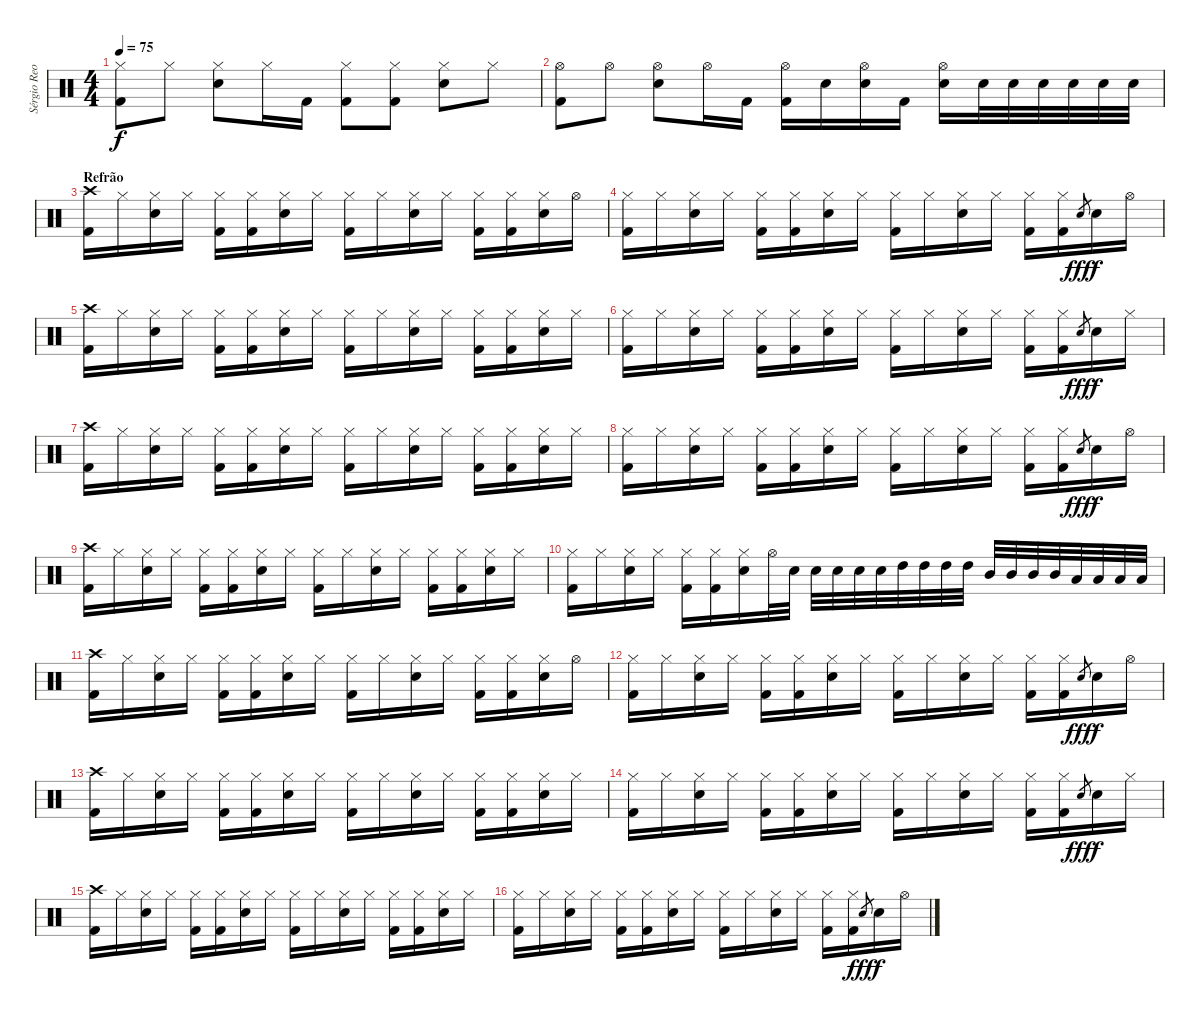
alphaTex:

\track ("Sérgio Reoli" "Sérgio Reo") {instrument percussion}
\staff {score}
\articulation defaults
\ts (4 4)
\tempo 75
\clef neutral
\ks c
("Hi-Hat (closed)" "Kick (hit) 2").8{dy f} "Hi-Hat (closed)".8 ("Hi-Hat (closed)" "Electric Snare (hit)").8 "Hi-Hat (closed)".16 "Kick (hit) 2".16 ("Hi-Hat (closed)" "Kick (hit) 2").8 ("Hi-Hat (closed)" "Kick (hit) 2").8 ("Hi-Hat (closed)" "Electric Snare (hit)").8 "Hi-Hat (closed)".8 |
("Hi-Hat (open)" "Kick (hit) 2").8 "Hi-Hat (open)".8 ("Hi-Hat (open)" "Electric Snare (hit)").8 "Hi-Hat (open)".16 "Kick (hit) 2".16 ("Hi-Hat (open)" "Kick (hit) 2").16 "Electric Snare (hit)".16 ("Hi-Hat (open)" "Electric Snare (hit)").16 "Kick (hit) 2".16 ("Hi-Hat (open)" "Electric Snare (hit)").16 "Electric Snare (hit)".32 "Electric Snare (hit)".32 "Electric Snare (hit)".32 "Electric Snare (hit)".32 "Electric Snare (hit)".32 "Electric Snare (hit)".32 |
\section ("" "Refrão")
("Crash high (hit)" "Kick (hit) 2").16 "Hi-Hat (closed)".16 ("Hi-Hat (closed)" "Electric Snare (hit)").16 "Hi-Hat (closed)".16 ("Hi-Hat (closed)" "Kick (hit) 2").16 ("Hi-Hat (closed)" "Kick (hit) 2").16 ("Hi-Hat (closed)" "Electric Snare (hit)").16 "Hi-Hat (closed)".16 ("Hi-Hat (closed)" "Kick (hit) 2").16 "Hi-Hat (closed)".16 ("Hi-Hat (closed)" "Electric Snare (hit)").16 "Hi-Hat (closed)".16 ("Hi-Hat (closed)" "Kick (hit) 2").16 ("Hi-Hat (closed)" "Kick (hit) 2").16 ("Hi-Hat (closed)" "Electric Snare (hit)").16 "Hi-Hat (open)".16 |
("Hi-Hat (closed)" "Kick (hit) 2").16 "Hi-Hat (closed)".16 ("Hi-Hat (closed)" "Electric Snare (hit)").16 "Hi-Hat (closed)".16 ("Hi-Hat (closed)" "Kick (hit) 2").16 ("Hi-Hat (closed)" "Kick (hit) 2").16 ("Hi-Hat (closed)" "Electric Snare (hit)").16 "Hi-Hat (closed)".16 ("Hi-Hat (closed)" "Kick (hit) 2").16 "Hi-Hat (closed)".16 ("Hi-Hat (closed)" "Electric Snare (hit)").16 "Hi-Hat (closed)".16 ("Hi-Hat (closed)" "Kick (hit) 2").16 ("Hi-Hat (closed)" "Kick (hit) 2").16 "Electric Snare (hit)".8{gr dy fff} "Electric Snare (hit)".16{dy f} "Hi-Hat (open)".16 |
("Crash high (hit)" "Kick (hit) 2").16 "Hi-Hat (closed)".16 ("Hi-Hat (closed)" "Electric Snare (hit)").16 "Hi-Hat (closed)".16 ("Hi-Hat (closed)" "Kick (hit) 2").16 ("Hi-Hat (closed)" "Kick (hit) 2").16 ("Hi-Hat (closed)" "Electric Snare (hit)").16 "Hi-Hat (closed)".16 ("Hi-Hat (closed)" "Kick (hit) 2").16 "Hi-Hat (closed)".16 ("Hi-Hat (closed)" "Electric Snare (hit)").16 "Hi-Hat (closed)".16 ("Hi-Hat (closed)" "Kick (hit) 2").16 ("Hi-Hat (closed)" "Kick (hit) 2").16 ("Hi-Hat (closed)" "Electric Snare (hit)").16 "Hi-Hat (closed)".16 |
("Hi-Hat (closed)" "Kick (hit) 2").16 "Hi-Hat (closed)".16 ("Hi-Hat (closed)" "Electric Snare (hit)").16 "Hi-Hat (closed)".16 ("Hi-Hat (closed)" "Kick (hit) 2").16 ("Hi-Hat (closed)" "Kick (hit) 2").16 ("Hi-Hat (closed)" "Electric Snare (hit)").16 "Hi-Hat (closed)".16 ("Hi-Hat (closed)" "Kick (hit) 2").16 "Hi-Hat (closed)".16 ("Hi-Hat (closed)" "Electric Snare (hit)").16 "Hi-Hat (closed)".16 ("Hi-Hat (closed)" "Kick (hit) 2").16 ("Hi-Hat (closed)" "Kick (hit) 2").16 "Electric Snare (hit)".8{gr dy fff} "Electric Snare (hit)".16{dy f} "Hi-Hat (closed)".16 |
("Crash high (hit)" "Kick (hit) 2").16 "Hi-Hat (closed)".16 ("Hi-Hat (closed)" "Electric Snare (hit)").16 "Hi-Hat (closed)".16 ("Hi-Hat (closed)" "Kick (hit) 2").16 ("Hi-Hat (closed)" "Kick (hit) 2").16 ("Hi-Hat (closed)" "Electric Snare (hit)").16 "Hi-Hat (closed)".16 ("Hi-Hat (closed)" "Kick (hit) 2").16 "Hi-Hat (closed)".16 ("Hi-Hat (closed)" "Electric Snare (hit)").16 "Hi-Hat (closed)".16 ("Hi-Hat (closed)" "Kick (hit) 2").16 ("Hi-Hat (closed)" "Kick (hit) 2").16 ("Hi-Hat (closed)" "Electric Snare (hit)").16 "Hi-Hat (closed)".16 |
("Hi-Hat (closed)" "Kick (hit) 2").16 "Hi-Hat (closed)".16 ("Hi-Hat (closed)" "Electric Snare (hit)").16 "Hi-Hat (closed)".16 ("Hi-Hat (closed)" "Kick (hit) 2").16 ("Hi-Hat (closed)" "Kick (hit) 2").16 ("Hi-Hat (closed)" "Electric Snare (hit)").16 "Hi-Hat (closed)".16 ("Hi-Hat (closed)" "Kick (hit) 2").16 "Hi-Hat (closed)".16 ("Hi-Hat (closed)" "Electric Snare (hit)").16 "Hi-Hat (closed)".16 ("Hi-Hat (closed)" "Kick (hit) 2").16 ("Hi-Hat (closed)" "Kick (hit) 2").16 "Electric Snare (hit)".8{gr dy fff} "Electric Snare (hit)".16{dy f} "Hi-Hat (open)".16 |
("Crash high (hit)" "Kick (hit) 2").16 "Hi-Hat (closed)".16 ("Hi-Hat (closed)" "Electric Snare (hit)").16 "Hi-Hat (closed)".16 ("Hi-Hat (closed)" "Kick (hit) 2").16 ("Hi-Hat (closed)" "Kick (hit) 2").16 ("Hi-Hat (closed)" "Electric Snare (hit)").16 "Hi-Hat (closed)".16 ("Hi-Hat (closed)" "Kick (hit) 2").16 "Hi-Hat (closed)".16 ("Hi-Hat (closed)" "Electric Snare (hit)").16 "Hi-Hat (closed)".16 ("Hi-Hat (closed)" "Kick (hit) 2").16 ("Hi-Hat (closed)" "Kick (hit) 2").16 ("Hi-Hat (closed)" "Electric Snare (hit)").16 "Hi-Hat (closed)".16 |
("Hi-Hat (closed)" "Kick (hit) 2").16 "Hi-Hat (closed)".16 ("Hi-Hat (closed)" "Electric Snare (hit)").16 "Hi-Hat (closed)".16 ("Hi-Hat (closed)" "Kick (hit) 2").16 ("Hi-Hat (closed)" "Kick (hit) 2").16 ("Hi-Hat (closed)" "Electric Snare (hit)").16 "Hi-Hat (open)".32 "Electric Snare (hit)".32 "Electric Snare (hit)".32 "Electric Snare (hit)".32 "Electric Snare (hit)".32 "Electric Snare (hit)".32 "High Tom (hit)".32 "High Tom (hit)".32 "High Tom (hit)".32 "High Tom (hit)".32 "Mid Tom (hit)".32 "Mid Tom (hit)".32 "Mid Tom (hit)".32 "Mid Tom (hit)".32 "Low Tom (hit)".32 "Low Tom (hit)".32 "Low Tom (hit)".32 "Low Tom (hit)".32 |
("Crash high (hit)" "Kick (hit) 2").16 "Hi-Hat (closed)".16 ("Hi-Hat (closed)" "Electric Snare (hit)").16 "Hi-Hat (closed)".16 ("Hi-Hat (closed)" "Kick (hit) 2").16 ("Hi-Hat (closed)" "Kick (hit) 2").16 ("Hi-Hat (closed)" "Electric Snare (hit)").16 "Hi-Hat (closed)".16 ("Hi-Hat (closed)" "Kick (hit) 2").16 "Hi-Hat (closed)".16 ("Hi-Hat (closed)" "Electric Snare (hit)").16 "Hi-Hat (closed)".16 ("Hi-Hat (closed)" "Kick (hit) 2").16 ("Hi-Hat (closed)" "Kick (hit) 2").16 ("Hi-Hat (closed)" "Electric Snare (hit)").16 "Hi-Hat (open)".16 |
("Hi-Hat (closed)" "Kick (hit) 2").16 "Hi-Hat (closed)".16 ("Hi-Hat (closed)" "Electric Snare (hit)").16 "Hi-Hat (closed)".16 ("Hi-Hat (closed)" "Kick (hit) 2").16 ("Hi-Hat (closed)" "Kick (hit) 2").16 ("Hi-Hat (closed)" "Electric Snare (hit)").16 "Hi-Hat (closed)".16 ("Hi-Hat (closed)" "Kick (hit) 2").16 "Hi-Hat (closed)".16 ("Hi-Hat (closed)" "Electric Snare (hit)").16 "Hi-Hat (closed)".16 ("Hi-Hat (closed)" "Kick (hit) 2").16 ("Hi-Hat (closed)" "Kick (hit) 2").16 "Electric Snare (hit)".8{gr dy fff} "Electric Snare (hit)".16{dy f} "Hi-Hat (open)".16 |
("Crash high (hit)" "Kick (hit) 2").16 "Hi-Hat (closed)".16 ("Hi-Hat (closed)" "Electric Snare (hit)").16 "Hi-Hat (closed)".16 ("Hi-Hat (closed)" "Kick (hit) 2").16 ("Hi-Hat (closed)" "Kick (hit) 2").16 ("Hi-Hat (closed)" "Electric Snare (hit)").16 "Hi-Hat (closed)".16 ("Hi-Hat (closed)" "Kick (hit) 2").16 "Hi-Hat (closed)".16 ("Hi-Hat (closed)" "Electric Snare (hit)").16 "Hi-Hat (closed)".16 ("Hi-Hat (closed)" "Kick (hit) 2").16 ("Hi-Hat (closed)" "Kick (hit) 2").16 ("Hi-Hat (closed)" "Electric Snare (hit)").16 "Hi-Hat (closed)".16 |
("Hi-Hat (closed)" "Kick (hit) 2").16 "Hi-Hat (closed)".16 ("Hi-Hat (closed)" "Electric Snare (hit)").16 "Hi-Hat (closed)".16 ("Hi-Hat (closed)" "Kick (hit) 2").16 ("Hi-Hat (closed)" "Kick (hit) 2").16 ("Hi-Hat (closed)" "Electric Snare (hit)").16 "Hi-Hat (closed)".16 ("Hi-Hat (closed)" "Kick (hit) 2").16 "Hi-Hat (closed)".16 ("Hi-Hat (closed)" "Electric Snare (hit)").16 "Hi-Hat (closed)".16 ("Hi-Hat (closed)" "Kick (hit) 2").16 ("Hi-Hat (closed)" "Kick (hit) 2").16 "Electric Snare (hit)".8{gr dy fff} "Electric Snare (hit)".16{dy f} "Hi-Hat (closed)".16 |
("Crash high (hit)" "Kick (hit) 2").16 "Hi-Hat (closed)".16 ("Hi-Hat (closed)" "Electric Snare (hit)").16 "Hi-Hat (closed)".16 ("Hi-Hat (closed)" "Kick (hit) 2").16 ("Hi-Hat (closed)" "Kick (hit) 2").16 ("Hi-Hat (closed)" "Electric Snare (hit)").16 "Hi-Hat (closed)".16 ("Hi-Hat (closed)" "Kick (hit) 2").16 "Hi-Hat (closed)".16 ("Hi-Hat (closed)" "Electric Snare (hit)").16 "Hi-Hat (closed)".16 ("Hi-Hat (closed)" "Kick (hit) 2").16 ("Hi-Hat (closed)" "Kick (hit) 2").16 ("Hi-Hat (closed)" "Electric Snare (hit)").16 "Hi-Hat (closed)".16 |
("Hi-Hat (closed)" "Kick (hit) 2").16 "Hi-Hat (closed)".16 ("Hi-Hat (closed)" "Electric Snare (hit)").16 "Hi-Hat (closed)".16 ("Hi-Hat (closed)" "Kick (hit) 2").16 ("Hi-Hat (closed)" "Kick (hit) 2").16 ("Hi-Hat (closed)" "Electric Snare (hit)").16 "Hi-Hat (closed)".16 ("Hi-Hat (closed)" "Kick (hit) 2").16 "Hi-Hat (closed)".16 ("Hi-Hat (closed)" "Electric Snare (hit)").16 "Hi-Hat (closed)".16 ("Hi-Hat (closed)" "Kick (hit) 2").16 ("Hi-Hat (closed)" "Kick (hit) 2").16 "Electric Snare (hit)".8{gr dy fff} "Electric Snare (hit)".16{dy f} "Hi-Hat (open)".16
